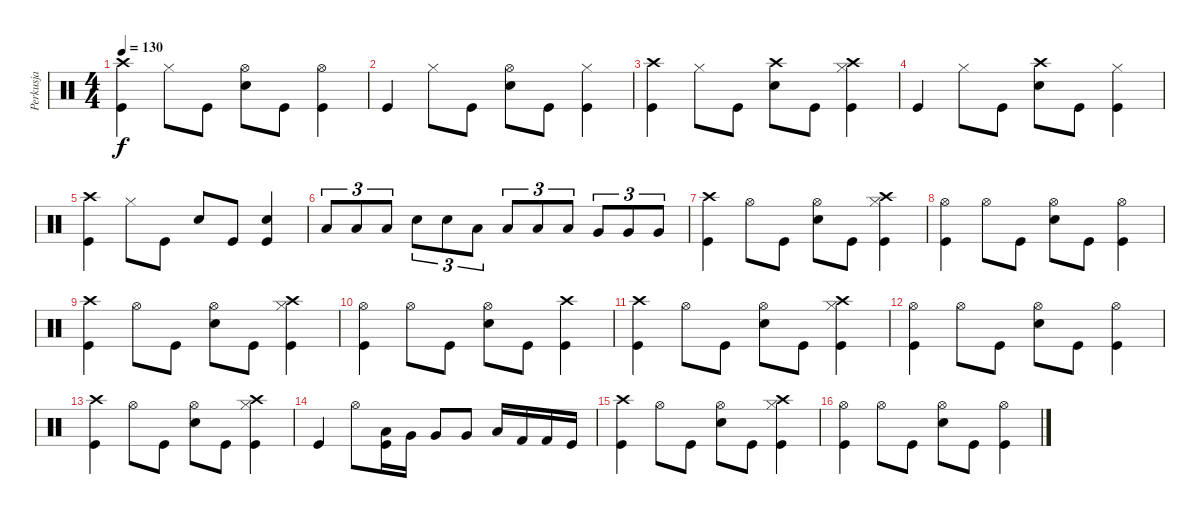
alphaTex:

\track ("Perkusja" "Perkusja") {instrument percussion}
\staff {score}
\articulation defaults
\ts (4 4)
\tempo 130
\clef neutral
\ks c
("Crash high (hit)" "Kick (hit)").4{dy f} "Hi-Hat (closed)".8 "Kick (hit)".8 ("Hi-Hat (open)" "Electric Snare (hit)").8 "Kick (hit)".8 ("Hi-Hat (open)" "Kick (hit)").4 |
"Kick (hit)".4 "Hi-Hat (closed)".8 "Kick (hit)".8 ("Hi-Hat (open)" "Electric Snare (hit)").8 "Kick (hit)".8 ("Hi-Hat (closed)" "Kick (hit)").4 |
("Crash high (hit)" "Kick (hit)").4 "Hi-Hat (closed)".8 "Kick (hit)".8 ("Crash high (hit)" "Electric Snare (hit)").8 "Kick (hit)".8 ("Crash high (hit)" "Hi-Hat (closed)" "Kick (hit)").4 |
"Kick (hit)".4 "Hi-Hat (closed)".8 "Kick (hit)".8 ("Crash high (hit)" "Electric Snare (hit)").8 "Kick (hit)".8 ("Hi-Hat (closed)" "Kick (hit)").4 |
("Crash high (hit)" "Kick (hit)").4 "Hi-Hat (closed)".8 "Kick (hit)".8 "Electric Snare (hit)".8 "Kick (hit)".8 ("Electric Snare (hit)" "Kick (hit)").4 |
"Low Tom (hit)".8{tu (3 2)} "Low Tom (hit)".8{tu (3 2)} "Low Tom (hit)".8{tu (3 2)} "Electric Snare (hit)".8{tu (3 2)} "Electric Snare (hit)".8{tu (3 2)} "Low Tom (hit)".8{tu (3 2)} "Low Tom (hit)".8{tu (3 2)} "Low Tom (hit)".8{tu (3 2)} "Low Tom (hit)".8{tu (3 2)} "Very Low Tom (hit)".8{tu (3 2)} "Very Low Tom (hit)".8{tu (3 2)} "Very Low Tom (hit)".8{tu (3 2)} |
("Crash high (hit)" "Kick (hit)").4 "Hi-Hat (open)".8 "Kick (hit)".8 ("Hi-Hat (open)" "Electric Snare (hit)").8 "Kick (hit)".8 ("Crash high (hit)" "Hi-Hat (closed)" "Kick (hit)").4 |
("Hi-Hat (open)" "Kick (hit)").4 "Hi-Hat (open)".8 "Kick (hit)".8 ("Hi-Hat (open)" "Electric Snare (hit)").8 "Kick (hit)".8 ("Hi-Hat (open)" "Kick (hit)").4 |
("Crash high (hit)" "Kick (hit)").4 "Hi-Hat (open)".8 "Kick (hit)".8 ("Hi-Hat (open)" "Electric Snare (hit)").8 "Kick (hit)".8 ("Crash high (hit)" "Hi-Hat (closed)" "Kick (hit)").4 |
("Hi-Hat (open)" "Kick (hit)").4 "Hi-Hat (open)".8 "Kick (hit)".8 ("Hi-Hat (open)" "Electric Snare (hit)").8 "Kick (hit)".8 ("Crash high (hit)" "Kick (hit)").4 |
("Crash high (hit)" "Kick (hit)").4 "Hi-Hat (open)".8 "Kick (hit)".8 ("Hi-Hat (open)" "Electric Snare (hit)").8 "Kick (hit)".8 ("Crash high (hit)" "Hi-Hat (closed)" "Kick (hit)").4 |
("Hi-Hat (open)" "Kick (hit)").4 "Hi-Hat (open)".8 "Kick (hit)".8 ("Hi-Hat (open)" "Electric Snare (hit)").8 "Kick (hit)".8 ("Hi-Hat (open)" "Kick (hit)").4 |
("Crash high (hit)" "Kick (hit)").4 "Hi-Hat (open)".8 "Kick (hit)".8 ("Hi-Hat (open)" "Electric Snare (hit)").8 "Kick (hit)".8 ("Crash high (hit)" "Hi-Hat (closed)" "Kick (hit)").4 |
"Kick (hit)".4 "Hi-Hat (open)".8 ("Low Tom (hit)" "Kick (hit)").16 "Very Low Tom (hit)".16 "Very Low Tom (hit)".8 "Very Low Tom (hit)".8 "Low Floor Tom (hit)".16 "Kick (hit) 2".16 "Kick (hit) 2".16 "Kick (hit)".16 |
("Crash high (hit)" "Kick (hit)").4 "Hi-Hat (open)".8 "Kick (hit)".8 ("Hi-Hat (open)" "Electric Snare (hit)").8 "Kick (hit)".8 ("Crash high (hit)" "Hi-Hat (closed)" "Kick (hit)").4 |
("Hi-Hat (open)" "Kick (hit)").4 "Hi-Hat (open)".8 "Kick (hit)".8 ("Hi-Hat (open)" "Electric Snare (hit)").8 "Kick (hit)".8 ("Hi-Hat (open)" "Kick (hit)").4
